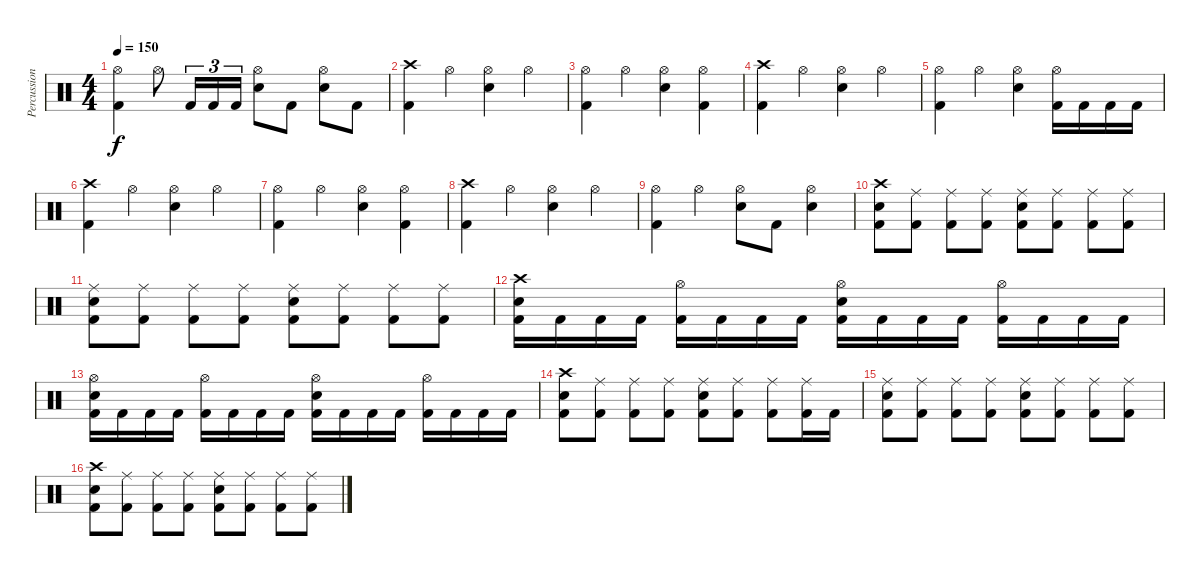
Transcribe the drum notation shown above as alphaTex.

\track ("Percussion" "Percussion") {instrument percussion}
\staff {score}
\articulation defaults
\ts (4 4)
\tempo 150
\clef neutral
\ks c
("Hi-Hat (open)" "Kick (hit) 2").4{dy f} "Hi-Hat (open)".8 "Kick (hit) 2".16{tu (3 2)} "Kick (hit) 2".16{tu (3 2)} "Kick (hit) 2".16{tu (3 2)} ("Hi-Hat (open)" "Snare (hit) 2").8 "Kick (hit) 2".8 ("Hi-Hat (open)" "Snare (hit) 2").8 "Kick (hit) 2".8 |
("Crash high (hit)" "Kick (hit) 2").4 "Hi-Hat (open)".4 ("Hi-Hat (open)" "Snare (hit) 2").4 "Hi-Hat (open)".4 |
("Hi-Hat (open)" "Kick (hit) 2").4 "Hi-Hat (open)".4 ("Hi-Hat (open)" "Snare (hit) 2").4 ("Hi-Hat (open)" "Kick (hit) 2").4 |
("Crash high (hit)" "Kick (hit) 2").4 "Hi-Hat (open)".4 ("Hi-Hat (open)" "Snare (hit) 2").4 "Hi-Hat (open)".4 |
("Hi-Hat (open)" "Kick (hit) 2").4 "Hi-Hat (open)".4 ("Hi-Hat (open)" "Snare (hit) 2").4 ("Hi-Hat (open)" "Kick (hit) 2").16 "Kick (hit) 2".16 "Kick (hit) 2".16 "Kick (hit) 2".16 |
("Crash high (hit)" "Kick (hit) 2").4 "Hi-Hat (open)".4 ("Hi-Hat (open)" "Snare (hit) 2").4 "Hi-Hat (open)".4 |
("Hi-Hat (open)" "Kick (hit) 2").4 "Hi-Hat (open)".4 ("Hi-Hat (open)" "Snare (hit) 2").4 ("Hi-Hat (open)" "Kick (hit) 2").4 |
("Crash high (hit)" "Kick (hit) 2").4 "Hi-Hat (open)".4 ("Hi-Hat (open)" "Snare (hit) 2").4 "Hi-Hat (open)".4 |
("Hi-Hat (open)" "Kick (hit) 2").4 "Hi-Hat (open)".4 ("Hi-Hat (open)" "Snare (hit) 2").8 "Kick (hit) 2".8 ("Hi-Hat (open)" "Snare (hit) 2").4 |
("Crash high (hit)" "Snare (hit) 2" "Kick (hit) 2").8 ("Ride (middle)" "Kick (hit) 2").8 ("Ride (middle)" "Kick (hit) 2").8 ("Ride (middle)" "Kick (hit) 2").8 ("Ride (middle)" "Snare (hit) 2" "Kick (hit) 2").8 ("Ride (middle)" "Kick (hit) 2").8 ("Ride (middle)" "Kick (hit) 2").8 ("Ride (middle)" "Kick (hit) 2").8 |
("Ride (middle)" "Snare (hit) 2" "Kick (hit) 2").8 ("Ride (middle)" "Kick (hit) 2").8 ("Ride (middle)" "Kick (hit) 2").8 ("Ride (middle)" "Kick (hit) 2").8 ("Ride (middle)" "Snare (hit) 2" "Kick (hit) 2").8 ("Ride (middle)" "Kick (hit) 2").8 ("Ride (middle)" "Kick (hit) 2").8 ("Ride (middle)" "Kick (hit) 2").8 |
("Crash high (hit)" "Snare (hit) 2" "Kick (hit) 2").16 "Kick (hit) 2".16 "Kick (hit) 2".16 "Kick (hit) 2".16 ("Hi-Hat (open)" "Kick (hit) 2").16 "Kick (hit) 2".16 "Kick (hit) 2".16 "Kick (hit) 2".16 ("Hi-Hat (open)" "Snare (hit) 2" "Kick (hit) 2").16 "Kick (hit) 2".16 "Kick (hit) 2".16 "Kick (hit) 2".16 ("Hi-Hat (open)" "Kick (hit) 2").16 "Kick (hit) 2".16 "Kick (hit) 2".16 "Kick (hit) 2".16 |
("Hi-Hat (open)" "Snare (hit) 2" "Kick (hit) 2").16 "Kick (hit) 2".16 "Kick (hit) 2".16 "Kick (hit) 2".16 ("Hi-Hat (open)" "Kick (hit) 2").16 "Kick (hit) 2".16 "Kick (hit) 2".16 "Kick (hit) 2".16 ("Hi-Hat (open)" "Snare (hit) 2" "Kick (hit) 2").16 "Kick (hit) 2".16 "Kick (hit) 2".16 "Kick (hit) 2".16 ("Hi-Hat (open)" "Kick (hit) 2").16 "Kick (hit) 2".16 "Kick (hit) 2".16 "Kick (hit) 2".16 |
("Crash high (hit)" "Snare (hit) 2" "Kick (hit) 2").8 ("Ride (middle)" "Kick (hit) 2").8 ("Ride (middle)" "Kick (hit) 2").8 ("Ride (middle)" "Kick (hit) 2").8 ("Ride (middle)" "Snare (hit) 2" "Kick (hit) 2").8 ("Ride (middle)" "Kick (hit) 2").8 ("Ride (middle)" "Kick (hit) 2").8 ("Ride (middle)" "Kick (hit) 2").16 "Kick (hit) 2".16 |
("Ride (middle)" "Snare (hit) 2" "Kick (hit) 2").8 ("Ride (middle)" "Kick (hit) 2").8 ("Ride (middle)" "Kick (hit) 2").8 ("Ride (middle)" "Kick (hit) 2").8 ("Ride (middle)" "Snare (hit) 2" "Kick (hit) 2").8 ("Ride (middle)" "Kick (hit) 2").8 ("Ride (middle)" "Kick (hit) 2").8 ("Ride (middle)" "Kick (hit) 2").8 |
("Crash high (hit)" "Snare (hit) 2" "Kick (hit) 2").8 ("Ride (middle)" "Kick (hit) 2").8 ("Ride (middle)" "Kick (hit) 2").8 ("Ride (middle)" "Kick (hit) 2").8 ("Ride (middle)" "Snare (hit) 2" "Kick (hit) 2").8 ("Ride (middle)" "Kick (hit) 2").8 ("Ride (middle)" "Kick (hit) 2").8 ("Ride (middle)" "Kick (hit) 2").8
